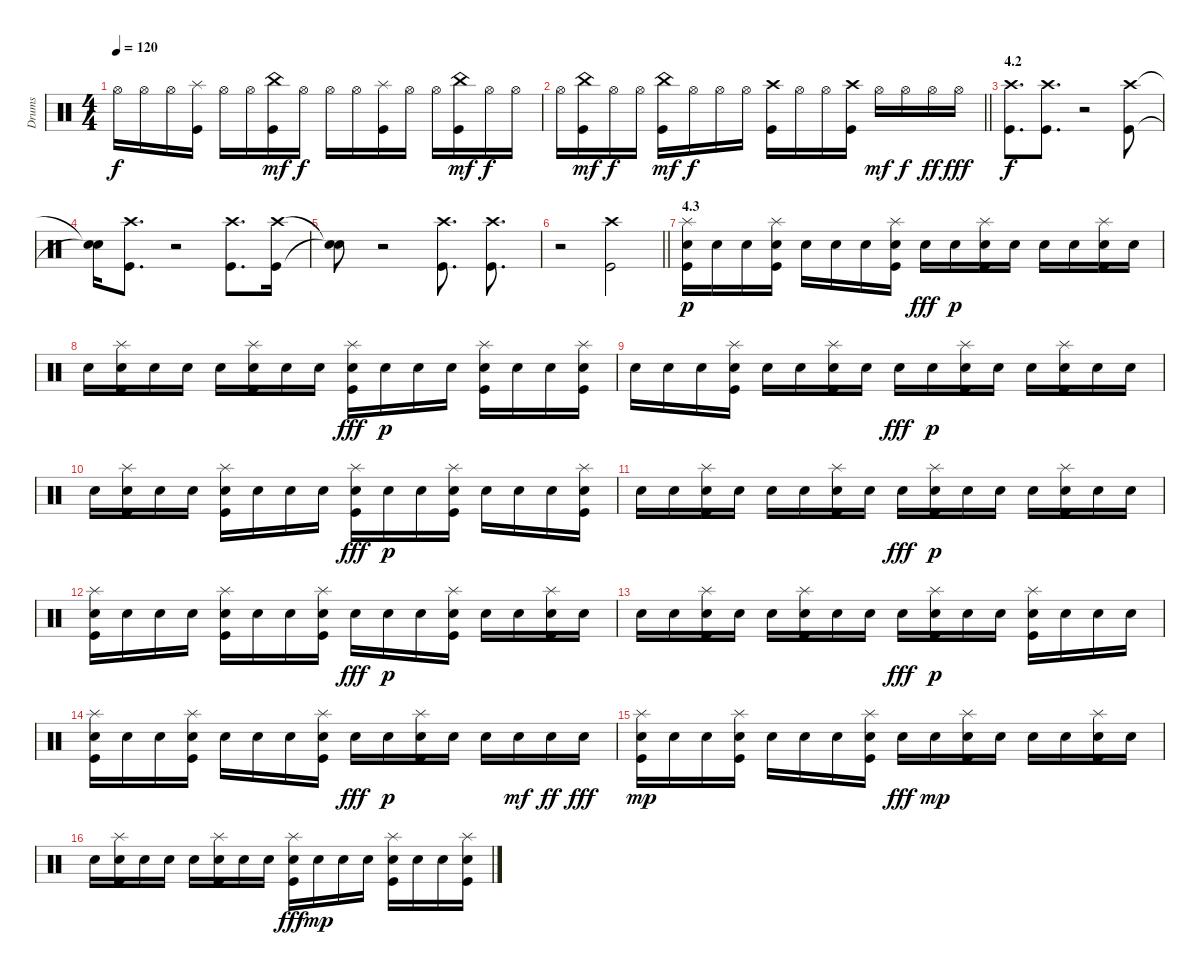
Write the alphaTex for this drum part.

\track ("Drums" "Drums") {instrument percussion}
\staff {score}
\articulation defaults
\ts (4 4)
\tempo 120
\clef neutral
\ks c "Hi-Hat (open)".16{dy f} "Hi-Hat (open)".16 "Hi-Hat (open)".16
("Splash (hit)" "Kick (hit)").16 "Hi-Hat (open)".16 "Hi-Hat (open)".16 ("China (hit)" "Kick (hit)").16{dy mf} "Hi-Hat (open)".16{dy f} "Hi-Hat (open)".16 "Hi-Hat (open)".16 ("Splash (hit)" "Kick (hit)").16 "Hi-Hat (open)".16 "Hi-Hat (open)".16 ("China (hit)" "Kick (hit)").16{dy mf} "Hi-Hat (open)".16{dy f} "Hi-Hat (open)".16 |
\barLineRight lightlight "Hi-Hat (open)".16
("China (hit)" "Kick (hit)").16{dy mf} "Hi-Hat (open)".16{dy f} "Hi-Hat (open)".16 ("China (hit)" "Kick (hit)").16{dy mf} "Hi-Hat (open)".16{dy f} "Hi-Hat (open)".16 "Hi-Hat (open)".16 ("Crash high (hit)" "Kick (hit)").16 "Hi-Hat (open)".16 "Hi-Hat (open)".16 ("Crash high (hit)" "Kick (hit)").16 "Hi-Hat (open)".16{dy mf} "Hi-Hat (open)".16{dy f} "Hi-Hat (open)".16{dy ff} "Hi-Hat (open)".16{dy fff} |
\section ("" "4.2")
("Crash high (hit)" "Kick (hit)").8{d dy f volume 10} ("Crash high (hit)" "Kick (hit)").8{d} r.2{volume 3} ("Crash high (hit)" "Kick (hit)").8{volume 10} |
("Snare (hit)"{t} "Snare (hit)"{t}).16 ("Crash high (hit)" "Kick (hit)").8{d} r.2{volume 3} ("Crash high (hit)" "Kick (hit)").8{d volume 10} ("Crash high (hit)" "Kick (hit)").16 |
("Snare (hit)"{t} "Snare (hit)"{t}).8 r.2{volume 3} ("Crash high (hit)" "Kick (hit)").8{d volume 10} ("Crash high (hit)" "Kick (hit)").8{d} |
\barLineRight lightlight
r.2{volume 3} ("Crash high (hit)" "Kick (hit)").2{volume 10} |
\section ("" "4.3")
("Splash (hit)" "Snare (hit) 2" "Kick (hit)").16{dy p} "Snare (hit) 2".16 "Snare (hit) 2".16 ("Splash (hit)" "Snare (hit) 2" "Kick (hit)").16 "Snare (hit) 2".16 "Snare (hit) 2".16 "Snare (hit) 2".16 ("Splash (hit)" "Snare (hit) 2" "Kick (hit)").16 "Snare (hit) 2".16{dy fff} "Snare (hit) 2".16{dy p} ("Splash (hit)" "Snare (hit) 2" "Kick (hit)").16 "Snare (hit) 2".16 "Snare (hit) 2".16 "Snare (hit) 2".16 ("Splash (hit)" "Snare (hit) 2" "Kick (hit)").16 "Snare (hit) 2".16 |
"Snare (hit) 2".16 ("Splash (hit)" "Snare (hit) 2" "Kick (hit)").16 "Snare (hit) 2".16 "Snare (hit) 2".16 "Snare (hit) 2".16 ("Splash (hit)" "Snare (hit) 2" "Kick (hit)").16 "Snare (hit) 2".16 "Snare (hit) 2".16 ("Splash (hit)" "Snare (hit) 2" "Kick (hit)").16{dy fff} "Snare (hit) 2".16{dy p} "Snare (hit) 2".16 "Snare (hit) 2".16 ("Splash (hit)" "Snare (hit) 2" "Kick (hit)").16 "Snare (hit) 2".16 "Snare (hit) 2".16 ("Splash (hit)" "Snare (hit) 2" "Kick (hit)").16 |
"Snare (hit) 2".16 "Snare (hit) 2".16 "Snare (hit) 2".16 ("Splash (hit)" "Snare (hit) 2" "Kick (hit)").16 "Snare (hit) 2".16 "Snare (hit) 2".16 ("Splash (hit)" "Snare (hit) 2" "Kick (hit)").16 "Snare (hit) 2".16 "Snare (hit) 2".16{dy fff} "Snare (hit) 2".16{dy p} ("Splash (hit)" "Snare (hit) 2" "Kick (hit)").16 "Snare (hit) 2".16 "Snare (hit) 2".16 ("Splash (hit)" "Snare (hit) 2" "Kick (hit)").16 "Snare (hit) 2".16 "Snare (hit) 2".16 |
"Snare (hit) 2".16 ("Splash (hit)" "Snare (hit) 2" "Kick (hit)").16 "Snare (hit) 2".16 "Snare (hit) 2".16 ("Splash (hit)" "Snare (hit) 2" "Kick (hit)").16 "Snare (hit) 2".16 "Snare (hit) 2".16 "Snare (hit) 2".16 ("Splash (hit)" "Snare (hit) 2" "Kick (hit)").16{dy fff} "Snare (hit) 2".16{dy p} "Snare (hit) 2".16 ("Splash (hit)" "Snare (hit) 2" "Kick (hit)").16 "Snare (hit) 2".16 "Snare (hit) 2".16 "Snare (hit) 2".16 ("Splash (hit)" "Snare (hit) 2" "Kick (hit)").16 |
"Snare (hit) 2".16 "Snare (hit) 2".16 ("Splash (hit)" "Snare (hit) 2" "Kick (hit)").16 "Snare (hit) 2".16 "Snare (hit) 2".16 "Snare (hit) 2".16 ("Splash (hit)" "Snare (hit) 2" "Kick (hit)").16 "Snare (hit) 2".16 "Snare (hit) 2".16{dy fff} ("Splash (hit)" "Snare (hit) 2" "Kick (hit)").16{dy p} "Snare (hit) 2".16 "Snare (hit) 2".16 "Snare (hit) 2".16 ("Splash (hit)" "Snare (hit) 2" "Kick (hit)").16 "Snare (hit) 2".16 "Snare (hit) 2".16 |
("Splash (hit)" "Snare (hit) 2" "Kick (hit)").16 "Snare (hit) 2".16 "Snare (hit) 2".16 "Snare (hit) 2".16 ("Splash (hit)" "Snare (hit) 2" "Kick (hit)").16 "Snare (hit) 2".16 "Snare (hit) 2".16 ("Splash (hit)" "Snare (hit) 2" "Kick (hit)").16 "Snare (hit) 2".16{dy fff} "Snare (hit) 2".16{dy p} "Snare (hit) 2".16 ("Splash (hit)" "Snare (hit) 2" "Kick (hit)").16 "Snare (hit) 2".16 "Snare (hit) 2".16 ("Splash (hit)" "Snare (hit) 2" "Kick (hit)").16 "Snare (hit) 2".16 |
"Snare (hit) 2".16 "Snare (hit) 2".16 ("Splash (hit)" "Snare (hit) 2" "Kick (hit)").16 "Snare (hit) 2".16 "Snare (hit) 2".16 ("Splash (hit)" "Snare (hit) 2" "Kick (hit)").16 "Snare (hit) 2".16 "Snare (hit) 2".16 "Snare (hit) 2".16{dy fff} ("Splash (hit)" "Snare (hit) 2" "Kick (hit)").16{dy p} "Snare (hit) 2".16 "Snare (hit) 2".16 ("Splash (hit)" "Snare (hit) 2" "Kick (hit)").16 "Snare (hit) 2".16 "Snare (hit) 2".16 "Snare (hit) 2".16 |
("Splash (hit)" "Snare (hit) 2" "Kick (hit)").16 "Snare (hit) 2".16 "Snare (hit) 2".16 ("Splash (hit)" "Snare (hit) 2" "Kick (hit)").16 "Snare (hit) 2".16 "Snare (hit) 2".16 "Snare (hit) 2".16 ("Splash (hit)" "Snare (hit) 2" "Kick (hit)").16 "Snare (hit) 2".16{dy fff} "Snare (hit) 2".16{dy p} ("Splash (hit)" "Snare (hit) 2" "Kick (hit)").16 "Snare (hit) 2".16 "Snare (hit) 2".16 "Snare (hit) 2".16{dy mf} "Snare (hit) 2".16{dy ff} "Snare (hit) 2".16{dy fff} |
("Splash (hit)" "Snare (hit) 2" "Kick (hit)").16{dy mp} "Snare (hit) 2".16 "Snare (hit) 2".16 ("Splash (hit)" "Snare (hit) 2" "Kick (hit)").16 "Snare (hit) 2".16 "Snare (hit) 2".16 "Snare (hit) 2".16 ("Splash (hit)" "Snare (hit) 2" "Kick (hit)").16 "Snare (hit) 2".16{dy fff} "Snare (hit) 2".16{dy mp} ("Splash (hit)" "Snare (hit) 2" "Kick (hit)").16 "Snare (hit) 2".16 "Snare (hit) 2".16 "Snare (hit) 2".16 ("Splash (hit)" "Snare (hit) 2" "Kick (hit)").16 "Snare (hit) 2".16 |
"Snare (hit) 2".16 ("Splash (hit)" "Snare (hit) 2" "Kick (hit)").16 "Snare (hit) 2".16 "Snare (hit) 2".16 "Snare (hit) 2".16 ("Splash (hit)" "Snare (hit) 2" "Kick (hit)").16 "Snare (hit) 2".16 "Snare (hit) 2".16 ("Splash (hit)" "Snare (hit) 2" "Kick (hit)").16{dy fff} "Snare (hit) 2".16{dy mp} "Snare (hit) 2".16 "Snare (hit) 2".16 ("Splash (hit)" "Snare (hit) 2" "Kick (hit)").16 "Snare (hit) 2".16 "Snare (hit) 2".16 ("Splash (hit)" "Snare (hit) 2" "Kick (hit)").16
